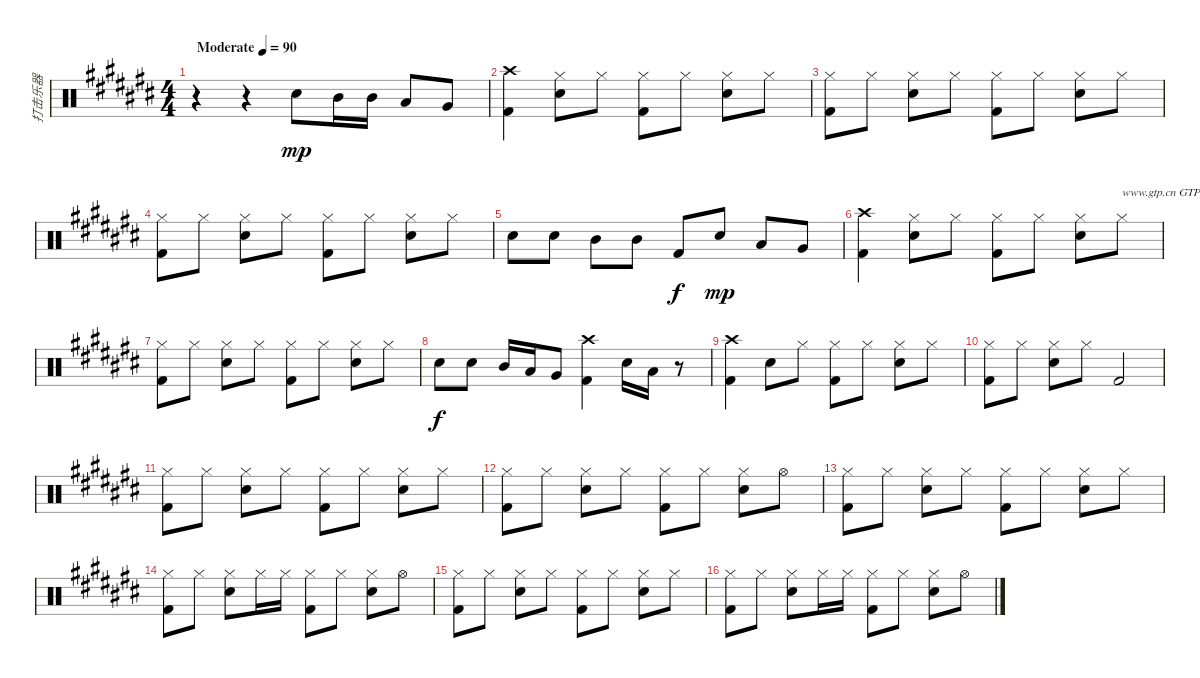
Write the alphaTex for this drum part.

\track ("打击乐器" "打击乐器") {instrument percussion}
\staff {score}
\articulation defaults
\ts (4 4)
\tempo (90 "Moderate")
\clef neutral
\ks c#
r.4{dy mp} r.4 "Snare (hit) 2".8 "Mid Tom (hit)".16 "Mid Tom (hit)".16 "Low Tom (hit)".8 "Very Low Tom (hit)".8 |
("Crash high (hit)" "Kick (hit) 2").4 ("Hi-Hat (closed)" "Snare (hit) 2").8 "Hi-Hat (closed)".8 ("Hi-Hat (closed)" "Kick (hit) 2").8 "Hi-Hat (closed)".8 ("Hi-Hat (closed)" "Snare (hit) 2").8 "Hi-Hat (closed)".8 |
("Hi-Hat (closed)" "Kick (hit) 2").8 "Hi-Hat (closed)".8 ("Hi-Hat (closed)" "Snare (hit) 2").8 "Hi-Hat (closed)".8 ("Hi-Hat (closed)" "Kick (hit) 2").8 "Hi-Hat (closed)".8 ("Hi-Hat (closed)" "Snare (hit) 2").8 "Hi-Hat (closed)".8 |
("Hi-Hat (closed)" "Kick (hit) 2").8 "Hi-Hat (closed)".8 ("Hi-Hat (closed)" "Snare (hit) 2").8 "Hi-Hat (closed)".8 ("Hi-Hat (closed)" "Kick (hit) 2").8 "Hi-Hat (closed)".8 ("Hi-Hat (closed)" "Snare (hit) 2").8 "Hi-Hat (closed)".8 |
"Snare (hit) 2".8 "Snare (hit) 2".8 "Mid Tom (hit)".8 "Mid Tom (hit)".8 "Kick (hit) 2".8{dy f} "Snare (hit) 2".8{dy mp} "Low Tom (hit)".8 "Very Low Tom (hit)".8 |
("Crash high (hit)" "Kick (hit) 2").4 ("Hi-Hat (closed)" "Snare (hit) 2").8 "Hi-Hat (closed)".8 ("Hi-Hat (closed)" "Kick (hit) 2").8 "Hi-Hat (closed)".8 ("Hi-Hat (closed)" "Snare (hit) 2").8 "Hi-Hat (closed)".8{txt "www.gtp.cn GTP中文网为您提供优秀的谱子"} |
("Hi-Hat (closed)" "Kick (hit) 2").8 "Hi-Hat (closed)".8 ("Hi-Hat (closed)" "Snare (hit) 2").8 "Hi-Hat (closed)".8 ("Hi-Hat (closed)" "Kick (hit) 2").8 "Hi-Hat (closed)".8 ("Hi-Hat (closed)" "Snare (hit) 2").8 "Hi-Hat (closed)".8 |
"Snare (hit) 2".8{dy f} "Snare (hit) 2".8 "Mid Tom (hit)".16 "Low Tom (hit)".16 "Very Low Tom (hit)".8 ("Crash high (hit)" "Kick (hit) 2").4 "Snare (hit) 2".16 "Low Tom (hit)".16 r.8 |
("Crash high (hit)" "Kick (hit) 2").4 "Snare (hit) 2".8 "Hi-Hat (closed)".8 ("Hi-Hat (closed)" "Kick (hit) 2").8 "Hi-Hat (closed)".8 ("Hi-Hat (closed)" "Snare (hit) 2").8 "Hi-Hat (closed)".8 |
("Hi-Hat (closed)" "Kick (hit) 2").8 "Hi-Hat (closed)".8 ("Hi-Hat (closed)" "Snare (hit) 2").8 "Hi-Hat (closed)".8 "Kick (hit) 2".2 |
("Hi-Hat (closed)" "Kick (hit) 2").8 "Hi-Hat (closed)".8 ("Hi-Hat (closed)" "Snare (hit) 2").8 "Hi-Hat (closed)".8 ("Hi-Hat (closed)" "Kick (hit) 2").8 "Hi-Hat (closed)".8 ("Hi-Hat (closed)" "Snare (hit) 2").8 "Hi-Hat (closed)".8 |
("Hi-Hat (closed)" "Kick (hit) 2").8 "Hi-Hat (closed)".8 ("Hi-Hat (closed)" "Snare (hit) 2").8 "Hi-Hat (closed)".8 ("Hi-Hat (closed)" "Kick (hit) 2").8 "Hi-Hat (closed)".8 ("Hi-Hat (closed)" "Snare (hit) 2").8 "Hi-Hat (open)".8 |
("Hi-Hat (closed)" "Kick (hit) 2").8 "Hi-Hat (closed)".8 ("Hi-Hat (closed)" "Snare (hit) 2").8 "Hi-Hat (closed)".8 ("Hi-Hat (closed)" "Kick (hit) 2").8 "Hi-Hat (closed)".8 ("Hi-Hat (closed)" "Snare (hit) 2").8 "Hi-Hat (closed)".8 |
("Hi-Hat (closed)" "Kick (hit) 2").8 "Hi-Hat (closed)".8 ("Hi-Hat (closed)" "Snare (hit) 2").8 "Hi-Hat (closed)".16 "Hi-Hat (closed)".16 ("Hi-Hat (closed)" "Kick (hit) 2").8 "Hi-Hat (closed)".8 ("Hi-Hat (closed)" "Snare (hit) 2").8 "Hi-Hat (open)".8 |
("Hi-Hat (closed)" "Kick (hit) 2").8 "Hi-Hat (closed)".8 ("Hi-Hat (closed)" "Snare (hit) 2").8 "Hi-Hat (closed)".8 ("Hi-Hat (closed)" "Kick (hit) 2").8 "Hi-Hat (closed)".8 ("Hi-Hat (closed)" "Snare (hit) 2").8 "Hi-Hat (closed)".8 |
("Hi-Hat (closed)" "Kick (hit) 2").8 "Hi-Hat (closed)".8 ("Hi-Hat (closed)" "Snare (hit) 2").8 "Hi-Hat (closed)".16 "Hi-Hat (closed)".16 ("Hi-Hat (closed)" "Kick (hit) 2").8 "Hi-Hat (closed)".8 ("Hi-Hat (closed)" "Snare (hit) 2").8 "Hi-Hat (open)".8
